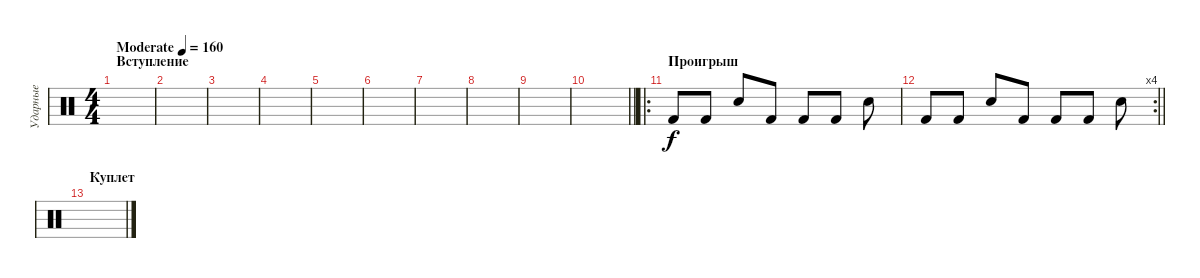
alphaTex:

\track ("Ударные" "Ударные") {instrument percussion}
\staff {score}
\articulation defaults
\ts (4 4)
\section ("" "Вступление")
\tempo (160 "Moderate")
\clef neutral
\ks c
|
|
|
|
|
|
|
|
|
\barLineRight lightlight
|
\ro
\section ("" "Проигрыш")
"Kick (hit) 2".8 "Kick (hit) 2".8 "Snare (hit) 2".8 "Kick (hit) 2".8 "Kick (hit) 2".8 "Kick (hit) 2".8 "Snare (hit) 2".8 |
\rc 4
\barLineRight lightlight "Kick (hit) 2".8 "Kick (hit) 2".8 "Snare (hit) 2".8 "Kick (hit) 2".8 "Kick (hit) 2".8 "Kick (hit) 2".8 "Snare (hit) 2".8
|
\section ("" "Куплет")
